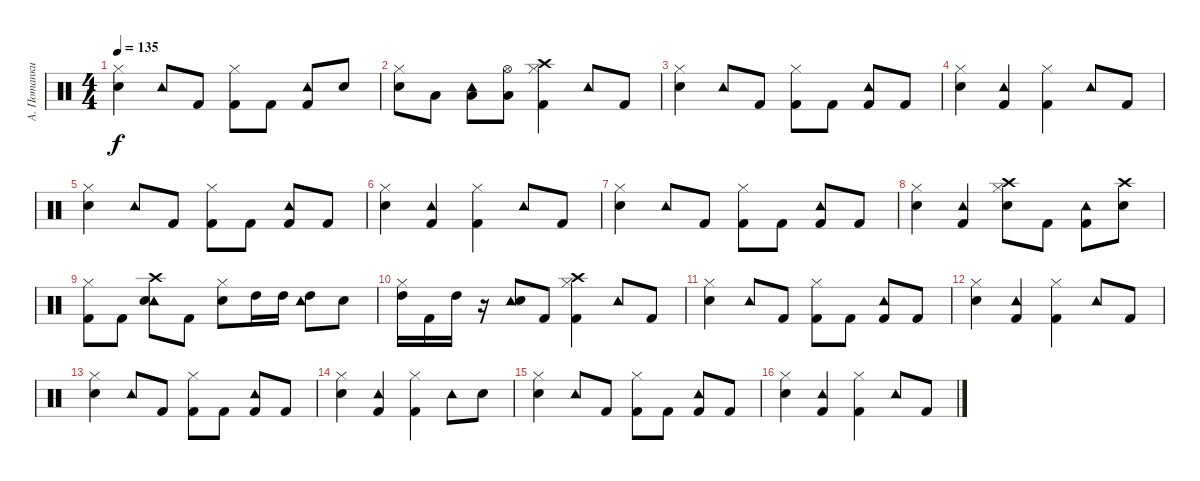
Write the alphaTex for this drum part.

\track ("А. Потапкин" "А. Потапки") {instrument percussion}
\staff {score}
\articulation defaults
\ts (4 4)
\tempo 135
\clef neutral
\ks c
("Hi-Hat (closed)" "Snare (hit) 2").4{dy f} "Tambourine (hit)".8 "Kick (hit) 2".8 ("Hi-Hat (closed)" "Kick (hit) 2").8 "Kick (hit) 2".8 ("Tambourine (hit)" "Kick (hit) 2").8 "Electric Snare (hit)".8 |
("Hi-Hat (closed)" "Electric Snare (hit)").8 "Low Floor Tom (hit)".8 ("Tambourine (hit)" "Low Floor Tom (hit)").8 ("Hi-Hat (open)" "Low Floor Tom (hit)").8 ("Crash high (hit)" "Hi-Hat (closed)" "Kick (hit) 2").4 "Tambourine (hit)".8 "Kick (hit) 2".8 |
("Hi-Hat (closed)" "Snare (hit) 2").4 "Tambourine (hit)".8 "Kick (hit) 2".8 ("Hi-Hat (closed)" "Kick (hit) 2").8 "Kick (hit) 2".8 ("Tambourine (hit)" "Kick (hit) 2").8 "Kick (hit) 2".8 |
("Hi-Hat (closed)" "Snare (hit) 2").4 ("Tambourine (hit)" "Kick (hit) 2").4 ("Hi-Hat (closed)" "Kick (hit) 2").4 "Tambourine (hit)".8 "Kick (hit) 2".8 |
("Hi-Hat (closed)" "Snare (hit) 2").4 "Tambourine (hit)".8 "Kick (hit) 2".8 ("Hi-Hat (closed)" "Kick (hit) 2").8 "Kick (hit) 2".8 ("Tambourine (hit)" "Kick (hit) 2").8 "Kick (hit) 2".8 |
("Hi-Hat (closed)" "Snare (hit) 2").4 ("Tambourine (hit)" "Kick (hit) 2").4 ("Hi-Hat (closed)" "Kick (hit) 2").4 "Tambourine (hit)".8 "Kick (hit) 2".8 |
("Hi-Hat (closed)" "Snare (hit) 2").4 "Tambourine (hit)".8 "Kick (hit) 2".8 ("Hi-Hat (closed)" "Kick (hit) 2").8 "Kick (hit) 2".8 ("Tambourine (hit)" "Kick (hit) 2").8 "Kick (hit) 2".8 |
("Hi-Hat (closed)" "Snare (hit) 2").4 ("Tambourine (hit)" "Kick (hit) 2").4 ("Crash high (hit)" "Hi-Hat (closed)" "Snare (hit) 2").8 "Kick (hit) 2".8 ("Tambourine (hit)" "Kick (hit) 2").8 ("Crash high (hit)" "Snare (hit) 2").8 |
("Hi-Hat (closed)" "Kick (hit) 2").8 "Kick (hit) 2".8 ("Crash high (hit)" "Tambourine (hit)" "Snare (hit) 2").8 "Kick (hit) 2".8 ("Hi-Hat (closed)" "Electric Snare (hit)").8 "High Tom (hit)".16 "High Tom (hit)".16 ("Tambourine (hit)" "High Tom (hit)").8 "Electric Snare (hit)".8 |
("Hi-Hat (closed)" "High Tom (hit)").16 "Kick (hit) 2".16 "High Tom (hit)".16 r.16 ("Tambourine (hit)" "Electric Snare (hit)").8 "Kick (hit) 2".8 ("Crash high (hit)" "Hi-Hat (closed)" "Kick (hit) 2").4 "Tambourine (hit)".8 "Kick (hit) 2".8 |
("Hi-Hat (closed)" "Snare (hit) 2").4 "Tambourine (hit)".8 "Kick (hit) 2".8 ("Hi-Hat (closed)" "Kick (hit) 2").8 "Kick (hit) 2".8 ("Tambourine (hit)" "Kick (hit) 2").8 "Kick (hit) 2".8 |
("Hi-Hat (closed)" "Snare (hit) 2").4 ("Tambourine (hit)" "Kick (hit) 2").4 ("Hi-Hat (closed)" "Kick (hit) 2").4 "Tambourine (hit)".8 "Kick (hit) 2".8 |
("Hi-Hat (closed)" "Snare (hit) 2").4 "Tambourine (hit)".8 "Kick (hit) 2".8 ("Hi-Hat (closed)" "Kick (hit) 2").8 "Kick (hit) 2".8 ("Tambourine (hit)" "Kick (hit) 2").8 "Kick (hit) 2".8 |
("Hi-Hat (closed)" "Snare (hit) 2").4 ("Tambourine (hit)" "Kick (hit) 2").4 ("Hi-Hat (closed)" "Kick (hit) 2").4 "Tambourine (hit)".8 "Snare (hit) 2".8 |
("Hi-Hat (closed)" "Snare (hit) 2").4 "Tambourine (hit)".8 "Kick (hit) 2".8 ("Hi-Hat (closed)" "Kick (hit) 2").8 "Kick (hit) 2".8 ("Tambourine (hit)" "Kick (hit) 2").8 "Kick (hit) 2".8 |
("Hi-Hat (closed)" "Snare (hit) 2").4 ("Tambourine (hit)" "Kick (hit) 2").4 ("Hi-Hat (closed)" "Kick (hit) 2").4 "Tambourine (hit)".8 "Kick (hit) 2".8
